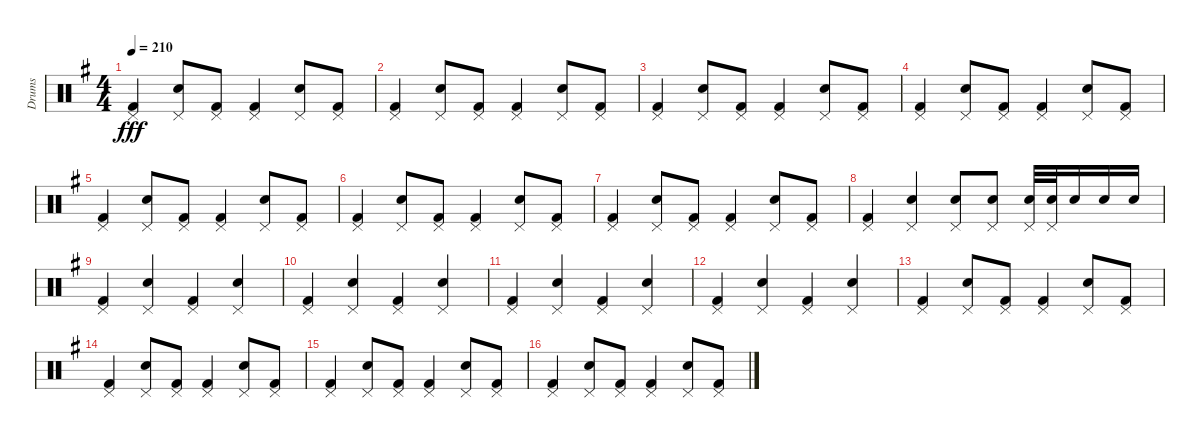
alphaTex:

\track ("Drums" "Drums") {instrument percussion}
\staff {score}
\articulation defaults
\ts (4 4)
\tempo 210
\clef neutral
\ks g
("Kick (hit) 2" "Pedal Hi-Hat (hit)").4{dy fff} ("Electric Snare (hit)" "Pedal Hi-Hat (hit)").8 ("Kick (hit) 2" "Pedal Hi-Hat (hit)").8 ("Kick (hit) 2" "Pedal Hi-Hat (hit)").4 ("Electric Snare (hit)" "Pedal Hi-Hat (hit)").8 ("Kick (hit) 2" "Pedal Hi-Hat (hit)").8 |
("Kick (hit) 2" "Pedal Hi-Hat (hit)").4 ("Electric Snare (hit)" "Pedal Hi-Hat (hit)").8 ("Kick (hit) 2" "Pedal Hi-Hat (hit)").8 ("Kick (hit) 2" "Pedal Hi-Hat (hit)").4 ("Electric Snare (hit)" "Pedal Hi-Hat (hit)").8 ("Kick (hit) 2" "Pedal Hi-Hat (hit)").8 |
("Kick (hit) 2" "Pedal Hi-Hat (hit)").4 ("Electric Snare (hit)" "Pedal Hi-Hat (hit)").8 ("Kick (hit) 2" "Pedal Hi-Hat (hit)").8 ("Kick (hit) 2" "Pedal Hi-Hat (hit)").4 ("Electric Snare (hit)" "Pedal Hi-Hat (hit)").8 ("Kick (hit) 2" "Pedal Hi-Hat (hit)").8 |
("Kick (hit) 2" "Pedal Hi-Hat (hit)").4 ("Electric Snare (hit)" "Pedal Hi-Hat (hit)").8 ("Kick (hit) 2" "Pedal Hi-Hat (hit)").8 ("Kick (hit) 2" "Pedal Hi-Hat (hit)").4 ("Electric Snare (hit)" "Pedal Hi-Hat (hit)").8 ("Kick (hit) 2" "Pedal Hi-Hat (hit)").8 |
("Kick (hit) 2" "Pedal Hi-Hat (hit)").4 ("Electric Snare (hit)" "Pedal Hi-Hat (hit)").8 ("Kick (hit) 2" "Pedal Hi-Hat (hit)").8 ("Kick (hit) 2" "Pedal Hi-Hat (hit)").4 ("Electric Snare (hit)" "Pedal Hi-Hat (hit)").8 ("Kick (hit) 2" "Pedal Hi-Hat (hit)").8 |
("Kick (hit) 2" "Pedal Hi-Hat (hit)").4 ("Electric Snare (hit)" "Pedal Hi-Hat (hit)").8 ("Kick (hit) 2" "Pedal Hi-Hat (hit)").8 ("Kick (hit) 2" "Pedal Hi-Hat (hit)").4 ("Electric Snare (hit)" "Pedal Hi-Hat (hit)").8 ("Kick (hit) 2" "Pedal Hi-Hat (hit)").8 |
("Kick (hit) 2" "Pedal Hi-Hat (hit)").4 ("Electric Snare (hit)" "Pedal Hi-Hat (hit)").8 ("Kick (hit) 2" "Pedal Hi-Hat (hit)").8 ("Kick (hit) 2" "Pedal Hi-Hat (hit)").4 ("Electric Snare (hit)" "Pedal Hi-Hat (hit)").8 ("Kick (hit) 2" "Pedal Hi-Hat (hit)").8 |
("Kick (hit) 2" "Pedal Hi-Hat (hit)").4 ("Electric Snare (hit)" "Pedal Hi-Hat (hit)").4 ("Electric Snare (hit)" "Pedal Hi-Hat (hit)").8 ("Electric Snare (hit)" "Pedal Hi-Hat (hit)").8 ("Electric Snare (hit)" "Pedal Hi-Hat (hit)").32 ("Electric Snare (hit)" "Pedal Hi-Hat (hit)").32 "Electric Snare (hit)".16 "Electric Snare (hit)".16 "Electric Snare (hit)".16 |
("Kick (hit) 2" "Pedal Hi-Hat (hit)").4 ("Electric Snare (hit)" "Pedal Hi-Hat (hit)").4 ("Kick (hit) 2" "Pedal Hi-Hat (hit)").4 ("Electric Snare (hit)" "Pedal Hi-Hat (hit)").4 |
("Kick (hit) 2" "Pedal Hi-Hat (hit)").4 ("Electric Snare (hit)" "Pedal Hi-Hat (hit)").4 ("Kick (hit) 2" "Pedal Hi-Hat (hit)").4 ("Electric Snare (hit)" "Pedal Hi-Hat (hit)").4 |
("Kick (hit) 2" "Pedal Hi-Hat (hit)").4 ("Electric Snare (hit)" "Pedal Hi-Hat (hit)").4 ("Kick (hit) 2" "Pedal Hi-Hat (hit)").4 ("Electric Snare (hit)" "Pedal Hi-Hat (hit)").4 |
("Kick (hit) 2" "Pedal Hi-Hat (hit)").4 ("Electric Snare (hit)" "Pedal Hi-Hat (hit)").4 ("Kick (hit) 2" "Pedal Hi-Hat (hit)").4 ("Electric Snare (hit)" "Pedal Hi-Hat (hit)").4 |
("Kick (hit) 2" "Pedal Hi-Hat (hit)").4 ("Electric Snare (hit)" "Pedal Hi-Hat (hit)").8 ("Kick (hit) 2" "Pedal Hi-Hat (hit)").8 ("Kick (hit) 2" "Pedal Hi-Hat (hit)").4 ("Electric Snare (hit)" "Pedal Hi-Hat (hit)").8 ("Kick (hit) 2" "Pedal Hi-Hat (hit)").8 |
("Kick (hit) 2" "Pedal Hi-Hat (hit)").4 ("Electric Snare (hit)" "Pedal Hi-Hat (hit)").8 ("Kick (hit) 2" "Pedal Hi-Hat (hit)").8 ("Kick (hit) 2" "Pedal Hi-Hat (hit)").4 ("Electric Snare (hit)" "Pedal Hi-Hat (hit)").8 ("Kick (hit) 2" "Pedal Hi-Hat (hit)").8 |
("Kick (hit) 2" "Pedal Hi-Hat (hit)").4 ("Electric Snare (hit)" "Pedal Hi-Hat (hit)").8 ("Kick (hit) 2" "Pedal Hi-Hat (hit)").8 ("Kick (hit) 2" "Pedal Hi-Hat (hit)").4 ("Electric Snare (hit)" "Pedal Hi-Hat (hit)").8 ("Kick (hit) 2" "Pedal Hi-Hat (hit)").8 |
("Kick (hit) 2" "Pedal Hi-Hat (hit)").4 ("Electric Snare (hit)" "Pedal Hi-Hat (hit)").8 ("Kick (hit) 2" "Pedal Hi-Hat (hit)").8 ("Kick (hit) 2" "Pedal Hi-Hat (hit)").4 ("Electric Snare (hit)" "Pedal Hi-Hat (hit)").8 ("Kick (hit) 2" "Pedal Hi-Hat (hit)").8
